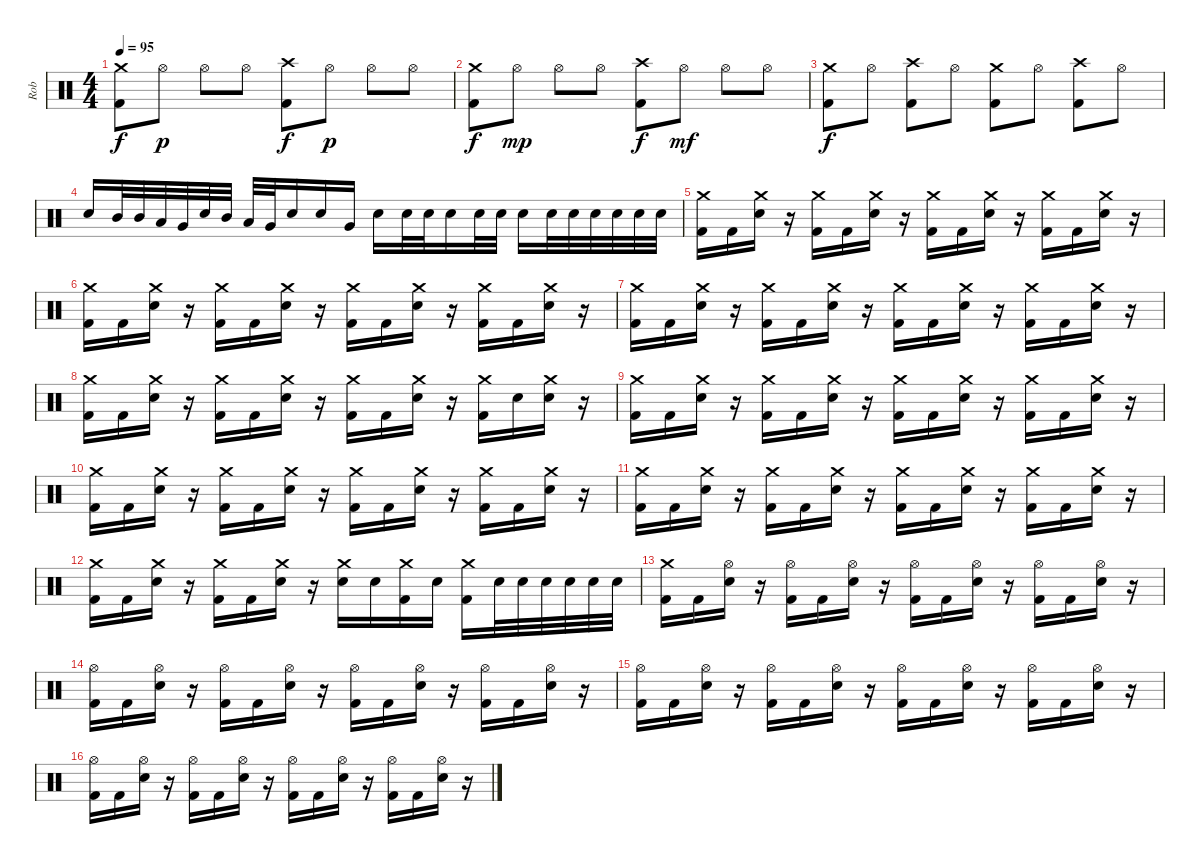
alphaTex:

\track ("Rob" "Rob") {instrument percussion}
\staff {score}
\articulation defaults
\ts (4 4)
\tempo 95
\clef neutral
\ks c
("Crash medium (hit)" "Kick (hit) 2").8{dy f} "Hi-Hat (open)".8{dy p} "Hi-Hat (open)".8 "Hi-Hat (open)".8 ("Crash high (hit)" "Kick (hit) 2").8{dy f} "Hi-Hat (open)".8{dy p} "Hi-Hat (open)".8 "Hi-Hat (open)".8 |
("Crash medium (hit)" "Kick (hit) 2").8{dy f} "Hi-Hat (open)".8{dy mp} "Hi-Hat (open)".8 "Hi-Hat (open)".8 ("Crash high (hit)" "Kick (hit) 2").8{dy f} "Hi-Hat (open)".8{dy mf} "Hi-Hat (open)".8 "Hi-Hat (open)".8 |
("Crash medium (hit)" "Kick (hit) 2").8{dy f} "Hi-Hat (open)".8 ("Crash high (hit)" "Kick (hit) 2").8 "Hi-Hat (open)".8 ("Crash medium (hit)" "Kick (hit) 2").8 "Hi-Hat (open)".8 ("Crash high (hit)" "Kick (hit) 2").8 "Hi-Hat (open)".8 |
"Electric Snare (hit)".16 "Mid Tom (hit)".32 "Mid Tom (hit)".32 "Low Tom (hit)".32 "Very Low Tom (hit)".32 "Electric Snare (hit)".32 "Mid Tom (hit)".32 "Low Tom (hit)".32 "Very Low Tom (hit)".32 "Electric Snare (hit)".16 "Electric Snare (hit)".16 "Very Low Tom (hit)".16 "Electric Snare (hit)".16 "Electric Snare (hit)".32 "Electric Snare (hit)".32 "Electric Snare (hit)".16 "Electric Snare (hit)".32 "Electric Snare (hit)".32 "Electric Snare (hit)".16 "Electric Snare (hit)".32 "Electric Snare (hit)".32 "Electric Snare (hit)".32 "Electric Snare (hit)".32 "Electric Snare (hit)".32 "Electric Snare (hit)".32 |
("Crash medium (hit)" "Kick (hit) 2").16 "Kick (hit) 2".16 ("Crash medium (hit)" "Electric Snare (hit)").16 r.16 ("Crash medium (hit)" "Kick (hit) 2").16 "Kick (hit) 2".16 ("Crash medium (hit)" "Electric Snare (hit)").16 r.16 ("Crash medium (hit)" "Kick (hit) 2").16 "Kick (hit) 2".16 ("Crash medium (hit)" "Electric Snare (hit)").16 r.16 ("Crash medium (hit)" "Kick (hit) 2").16 "Kick (hit) 2".16 ("Crash medium (hit)" "Electric Snare (hit)").16 r.16 |
("Crash medium (hit)" "Kick (hit) 2").16 "Kick (hit) 2".16 ("Crash medium (hit)" "Electric Snare (hit)").16 r.16 ("Crash medium (hit)" "Kick (hit) 2").16 "Kick (hit) 2".16 ("Crash medium (hit)" "Electric Snare (hit)").16 r.16 ("Crash medium (hit)" "Kick (hit) 2").16 "Kick (hit) 2".16 ("Crash medium (hit)" "Electric Snare (hit)").16 r.16 ("Crash medium (hit)" "Kick (hit) 2").16 "Kick (hit) 2".16 ("Crash medium (hit)" "Electric Snare (hit)").16 r.16 |
("Crash medium (hit)" "Kick (hit) 2").16 "Kick (hit) 2".16 ("Crash medium (hit)" "Electric Snare (hit)").16 r.16 ("Crash medium (hit)" "Kick (hit) 2").16 "Kick (hit) 2".16 ("Crash medium (hit)" "Electric Snare (hit)").16 r.16 ("Crash medium (hit)" "Kick (hit) 2").16 "Kick (hit) 2".16 ("Crash medium (hit)" "Electric Snare (hit)").16 r.16 ("Crash medium (hit)" "Kick (hit) 2").16 "Kick (hit) 2".16 ("Crash medium (hit)" "Electric Snare (hit)").16 r.16 |
("Crash medium (hit)" "Kick (hit) 2").16 "Kick (hit) 2".16 ("Crash medium (hit)" "Electric Snare (hit)").16 r.16 ("Crash medium (hit)" "Kick (hit) 2").16 "Kick (hit) 2".16 ("Crash medium (hit)" "Electric Snare (hit)").16 r.16 ("Crash medium (hit)" "Kick (hit) 2").16 "Kick (hit) 2".16 ("Crash medium (hit)" "Electric Snare (hit)").16 r.16 ("Crash medium (hit)" "Kick (hit) 2").16 "Electric Snare (hit)".16 ("Crash medium (hit)" "Electric Snare (hit)").16 r.16 |
("Crash medium (hit)" "Kick (hit) 2").16 "Kick (hit) 2".16 ("Crash medium (hit)" "Electric Snare (hit)").16 r.16 ("Crash medium (hit)" "Kick (hit) 2").16 "Kick (hit) 2".16 ("Crash medium (hit)" "Electric Snare (hit)").16 r.16 ("Crash medium (hit)" "Kick (hit) 2").16 "Kick (hit) 2".16 ("Crash medium (hit)" "Electric Snare (hit)").16 r.16 ("Crash medium (hit)" "Kick (hit) 2").16 "Kick (hit) 2".16 ("Crash medium (hit)" "Electric Snare (hit)").16 r.16 |
("Crash medium (hit)" "Kick (hit) 2").16 "Kick (hit) 2".16 ("Crash medium (hit)" "Electric Snare (hit)").16 r.16 ("Crash medium (hit)" "Kick (hit) 2").16 "Kick (hit) 2".16 ("Crash medium (hit)" "Electric Snare (hit)").16 r.16 ("Crash medium (hit)" "Kick (hit) 2").16 "Kick (hit) 2".16 ("Crash medium (hit)" "Electric Snare (hit)").16 r.16 ("Crash medium (hit)" "Kick (hit) 2").16 "Kick (hit) 2".16 ("Crash medium (hit)" "Electric Snare (hit)").16 r.16 |
("Crash medium (hit)" "Kick (hit) 2").16 "Kick (hit) 2".16 ("Crash medium (hit)" "Electric Snare (hit)").16 r.16 ("Crash medium (hit)" "Kick (hit) 2").16 "Kick (hit) 2".16 ("Crash medium (hit)" "Electric Snare (hit)").16 r.16 ("Crash medium (hit)" "Kick (hit) 2").16 "Kick (hit) 2".16 ("Crash medium (hit)" "Electric Snare (hit)").16 r.16 ("Crash medium (hit)" "Kick (hit) 2").16 "Kick (hit) 2".16 ("Crash medium (hit)" "Electric Snare (hit)").16 r.16 |
("Crash medium (hit)" "Kick (hit) 2").16 "Kick (hit) 2".16 ("Crash medium (hit)" "Electric Snare (hit)").16 r.16 ("Crash medium (hit)" "Kick (hit) 2").16 "Kick (hit) 2".16 ("Crash medium (hit)" "Electric Snare (hit)").16 r.16 ("Crash medium (hit)" "Electric Snare (hit)").16 "Electric Snare (hit)".16 ("Crash medium (hit)" "Kick (hit) 2").16 "Electric Snare (hit)".16 ("Crash medium (hit)" "Kick (hit) 2").16 "Electric Snare (hit)".32 "Electric Snare (hit)".32 "Electric Snare (hit)".32 "Electric Snare (hit)".32 "Electric Snare (hit)".32 "Electric Snare (hit)".32 |
("Crash medium (hit)" "Kick (hit) 2").16 "Kick (hit) 2".16 ("Hi-Hat (open)" "Electric Snare (hit)").16 r.16 ("Hi-Hat (open)" "Kick (hit) 2").16 "Kick (hit) 2".16 ("Hi-Hat (open)" "Electric Snare (hit)").16 r.16 ("Hi-Hat (open)" "Kick (hit) 2").16 "Kick (hit) 2".16 ("Hi-Hat (open)" "Electric Snare (hit)").16 r.16 ("Hi-Hat (open)" "Kick (hit) 2").16 "Kick (hit) 2".16 ("Hi-Hat (open)" "Electric Snare (hit)").16 r.16 |
("Hi-Hat (open)" "Kick (hit) 2").16 "Kick (hit) 2".16 ("Hi-Hat (open)" "Electric Snare (hit)").16 r.16 ("Hi-Hat (open)" "Kick (hit) 2").16 "Kick (hit) 2".16 ("Hi-Hat (open)" "Electric Snare (hit)").16 r.16 ("Hi-Hat (open)" "Kick (hit) 2").16 "Kick (hit) 2".16 ("Hi-Hat (open)" "Electric Snare (hit)").16 r.16 ("Hi-Hat (open)" "Kick (hit) 2").16 "Kick (hit) 2".16 ("Hi-Hat (open)" "Electric Snare (hit)").16 r.16 |
("Hi-Hat (open)" "Kick (hit) 2").16 "Kick (hit) 2".16 ("Hi-Hat (open)" "Electric Snare (hit)").16 r.16 ("Hi-Hat (open)" "Kick (hit) 2").16 "Kick (hit) 2".16 ("Hi-Hat (open)" "Electric Snare (hit)").16 r.16 ("Hi-Hat (open)" "Kick (hit) 2").16 "Kick (hit) 2".16 ("Hi-Hat (open)" "Electric Snare (hit)").16 r.16 ("Hi-Hat (open)" "Kick (hit) 2").16 "Kick (hit) 2".16 ("Hi-Hat (open)" "Electric Snare (hit)").16 r.16 |
("Hi-Hat (open)" "Kick (hit) 2").16 "Kick (hit) 2".16 ("Hi-Hat (open)" "Electric Snare (hit)").16 r.16 ("Hi-Hat (open)" "Kick (hit) 2").16 "Kick (hit) 2".16 ("Hi-Hat (open)" "Electric Snare (hit)").16 r.16 ("Hi-Hat (open)" "Kick (hit) 2").16 "Kick (hit) 2".16 ("Hi-Hat (open)" "Electric Snare (hit)").16 r.16 ("Hi-Hat (open)" "Kick (hit) 2").16 "Kick (hit) 2".16 ("Hi-Hat (open)" "Electric Snare (hit)").16 r.16
